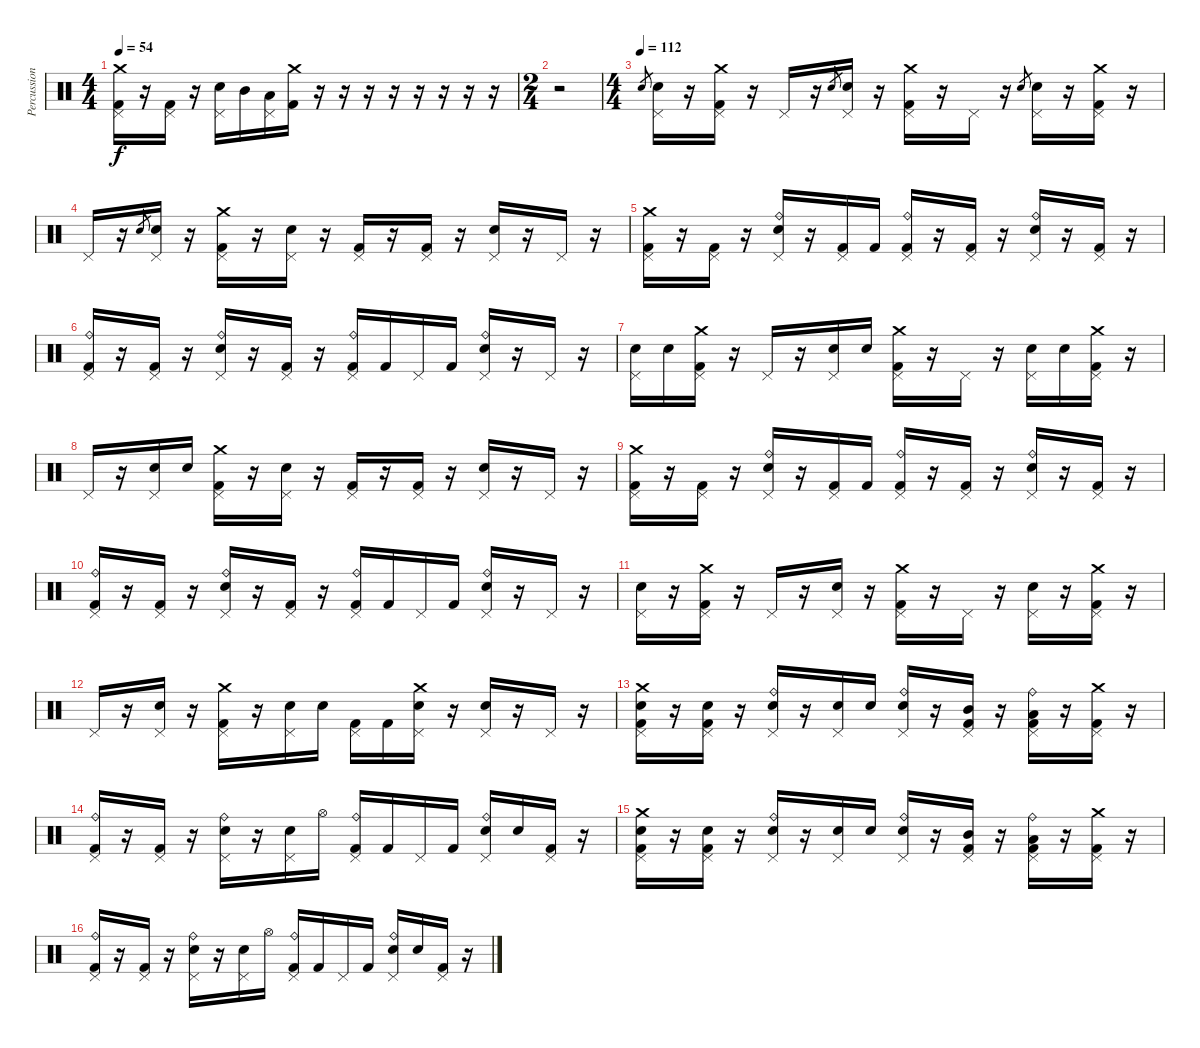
\track ("Percussion" "Percussion") {instrument percussion}
\staff {score}
\articulation defaults
\ts (4 4)
\tempo 54
\clef neutral
\ks c
("Crash medium (hit)" "Pedal Hi-Hat (hit)" "Kick (hit) 2").16{dy f} r.16 ("Pedal Hi-Hat (hit)" "Kick (hit) 2").16 r.16 ("Pedal Hi-Hat (hit)" "Snare (hit) 2").16 "Mid Tom (hit)".16 ("Pedal Hi-Hat (hit)" "Low Tom (hit)").16 ("Crash medium (hit)" "Kick (hit) 2").16 r.16 r.16 r.16 r.16 r.16 r.16 r.16 r.16 |
\ts (2 4)
r.2 |
\ts (4 4)
\tempo (112)
"Snare (hit) 2".8{gr} ("Pedal Hi-Hat (hit)" "Snare (hit) 2").16{volume 13} r.16 ("Crash medium (hit)" "Pedal Hi-Hat (hit)" "Kick (hit) 2").16 r.16 "Pedal Hi-Hat (hit)".16 r.16 "Snare (hit) 2".8{gr} ("Pedal Hi-Hat (hit)" "Snare (hit) 2").16 r.16 ("Crash medium (hit)" "Pedal Hi-Hat (hit)" "Kick (hit) 2").16 r.16 "Pedal Hi-Hat (hit)".16 r.16 "Snare (hit) 2".8{gr} ("Pedal Hi-Hat (hit)" "Snare (hit) 2").16 r.16 ("Crash medium (hit)" "Pedal Hi-Hat (hit)" "Kick (hit) 2").16 r.16 |
"Pedal Hi-Hat (hit)".16 r.16 "Snare (hit) 2".8{gr} ("Pedal Hi-Hat (hit)" "Snare (hit) 2").16 r.16 ("Crash medium (hit)" "Pedal Hi-Hat (hit)" "Kick (hit) 2").16 r.16 ("Pedal Hi-Hat (hit)" "Snare (hit) 2").16 r.16 ("Pedal Hi-Hat (hit)" "Kick (hit) 2").16 r.16 ("Pedal Hi-Hat (hit)" "Kick (hit) 2").16 r.16 ("Pedal Hi-Hat (hit)" "Snare (hit) 2").16 r.16 "Pedal Hi-Hat (hit)".16 r.16 |
("Crash medium (hit)" "Pedal Hi-Hat (hit)" "Kick (hit) 2").16 r.16 ("Pedal Hi-Hat (hit)" "Kick (hit) 2").16 r.16 ("Pedal Hi-Hat (hit)" "Ride (bell)" "Snare (hit) 2").16 r.16 ("Pedal Hi-Hat (hit)" "Kick (hit) 2").16 "Kick (hit) 2".16 ("Pedal Hi-Hat (hit)" "Ride (bell)" "Kick (hit) 2").16 r.16 ("Pedal Hi-Hat (hit)" "Kick (hit) 2").16 r.16 ("Pedal Hi-Hat (hit)" "Ride (bell)" "Snare (hit) 2").16 r.16 ("Pedal Hi-Hat (hit)" "Kick (hit) 2").16 r.16 |
("Pedal Hi-Hat (hit)" "Ride (bell)" "Kick (hit) 2").16 r.16 ("Pedal Hi-Hat (hit)" "Kick (hit) 2").16 r.16 ("Pedal Hi-Hat (hit)" "Ride (bell)" "Snare (hit) 2").16 r.16 ("Pedal Hi-Hat (hit)" "Kick (hit) 2").16 r.16 ("Pedal Hi-Hat (hit)" "Ride (bell)" "Kick (hit) 2").16 "Kick (hit) 2".16 "Pedal Hi-Hat (hit)".16 "Kick (hit) 2".16 ("Pedal Hi-Hat (hit)" "Ride (bell)" "Snare (hit) 2").16 r.16 "Pedal Hi-Hat (hit)".16 r.16 |
("Pedal Hi-Hat (hit)" "Snare (hit) 2").16 "Snare (hit) 2".16 ("Crash medium (hit)" "Pedal Hi-Hat (hit)" "Kick (hit) 2").16 r.16 "Pedal Hi-Hat (hit)".16 r.16 ("Pedal Hi-Hat (hit)" "Snare (hit) 2").16 "Snare (hit) 2".16 ("Crash medium (hit)" "Pedal Hi-Hat (hit)" "Kick (hit) 2").16 r.16 "Pedal Hi-Hat (hit)".16 r.16 ("Pedal Hi-Hat (hit)" "Snare (hit) 2").16 "Snare (hit) 2".16 ("Crash medium (hit)" "Pedal Hi-Hat (hit)" "Kick (hit) 2").16 r.16 |
"Pedal Hi-Hat (hit)".16 r.16 ("Pedal Hi-Hat (hit)" "Snare (hit) 2").16 "Snare (hit) 2".16 ("Crash medium (hit)" "Pedal Hi-Hat (hit)" "Kick (hit) 2").16 r.16 ("Pedal Hi-Hat (hit)" "Snare (hit) 2").16 r.16 ("Pedal Hi-Hat (hit)" "Kick (hit) 2").16 r.16 ("Pedal Hi-Hat (hit)" "Kick (hit) 2").16 r.16 ("Pedal Hi-Hat (hit)" "Snare (hit) 2").16 r.16 "Pedal Hi-Hat (hit)".16 r.16 |
("Crash medium (hit)" "Pedal Hi-Hat (hit)" "Kick (hit) 2").16 r.16 ("Pedal Hi-Hat (hit)" "Kick (hit) 2").16 r.16 ("Pedal Hi-Hat (hit)" "Ride (bell)" "Snare (hit) 2").16 r.16 ("Pedal Hi-Hat (hit)" "Kick (hit) 2").16 "Kick (hit) 2".16 ("Pedal Hi-Hat (hit)" "Ride (bell)" "Kick (hit) 2").16 r.16 ("Pedal Hi-Hat (hit)" "Kick (hit) 2").16 r.16 ("Pedal Hi-Hat (hit)" "Ride (bell)" "Snare (hit) 2").16 r.16 ("Pedal Hi-Hat (hit)" "Kick (hit) 2").16 r.16 |
("Pedal Hi-Hat (hit)" "Ride (bell)" "Kick (hit) 2").16 r.16 ("Pedal Hi-Hat (hit)" "Kick (hit) 2").16 r.16 ("Pedal Hi-Hat (hit)" "Ride (bell)" "Snare (hit) 2").16 r.16 ("Pedal Hi-Hat (hit)" "Kick (hit) 2").16 r.16 ("Pedal Hi-Hat (hit)" "Ride (bell)" "Kick (hit) 2").16 "Kick (hit) 2".16 "Pedal Hi-Hat (hit)".16 "Kick (hit) 2".16 ("Pedal Hi-Hat (hit)" "Ride (bell)" "Snare (hit) 2").16 r.16 "Pedal Hi-Hat (hit)".16 r.16 |
("Pedal Hi-Hat (hit)" "Snare (hit) 2").16 r.16 ("Crash medium (hit)" "Pedal Hi-Hat (hit)" "Kick (hit) 2").16 r.16 "Pedal Hi-Hat (hit)".16 r.16 ("Pedal Hi-Hat (hit)" "Snare (hit) 2").16 r.16 ("Crash medium (hit)" "Pedal Hi-Hat (hit)" "Kick (hit) 2").16 r.16 "Pedal Hi-Hat (hit)".16 r.16 ("Pedal Hi-Hat (hit)" "Snare (hit) 2").16 r.16 ("Crash medium (hit)" "Pedal Hi-Hat (hit)" "Kick (hit) 2").16 r.16 |
"Pedal Hi-Hat (hit)".16 r.16 ("Pedal Hi-Hat (hit)" "Snare (hit) 2").16 r.16 ("Crash medium (hit)" "Pedal Hi-Hat (hit)" "Kick (hit) 2").16 r.16 ("Pedal Hi-Hat (hit)" "Snare (hit) 2").16 "Snare (hit) 2".16 ("Pedal Hi-Hat (hit)" "Kick (hit) 2").16 "Kick (hit) 2".16 ("Crash medium (hit)" "Pedal Hi-Hat (hit)" "Snare (hit) 2").16 r.16 ("Pedal Hi-Hat (hit)" "Snare (hit) 2").16 r.16 "Pedal Hi-Hat (hit)".16 r.16 |
("Crash medium (hit)" "Pedal Hi-Hat (hit)" "Snare (hit) 2" "Kick (hit) 2").16 r.16 ("Pedal Hi-Hat (hit)" "Snare (hit) 2" "Kick (hit) 2").16 r.16 ("Ride (bell)" "Pedal Hi-Hat (hit)" "Snare (hit) 2").16 r.16 ("Pedal Hi-Hat (hit)" "Snare (hit) 2").16 "Snare (hit) 2".16 ("Ride (bell)" "Pedal Hi-Hat (hit)" "Snare (hit) 2").16 r.16 ("Pedal Hi-Hat (hit)" "Mid Tom (hit)" "Kick (hit) 2").16 r.16 ("Ride (bell)" "Pedal Hi-Hat (hit)" "Low Tom (hit)" "Kick (hit) 2").16 r.16 ("Crash medium (hit)" "Pedal Hi-Hat (hit)" "Kick (hit) 2").16 r.16 |
("Pedal Hi-Hat (hit)" "Ride (bell)" "Kick (hit) 2").16 r.16 ("Pedal Hi-Hat (hit)" "Kick (hit) 2").16 r.16 ("Pedal Hi-Hat (hit)" "Ride (bell)" "Snare (hit) 2").16 r.16 ("Pedal Hi-Hat (hit)" "Snare (hit) 2").16 "Hi-Hat (open)".16 ("Pedal Hi-Hat (hit)" "Ride (bell)" "Kick (hit) 2").16 "Kick (hit) 2".16 "Pedal Hi-Hat (hit)".16 "Kick (hit) 2".16 ("Pedal Hi-Hat (hit)" "Ride (bell)" "Snare (hit) 2").16 "Snare (hit) 2".16 ("Pedal Hi-Hat (hit)" "Kick (hit) 2").16 r.16 |
("Crash medium (hit)" "Pedal Hi-Hat (hit)" "Snare (hit) 2" "Kick (hit) 2").16 r.16 ("Pedal Hi-Hat (hit)" "Snare (hit) 2" "Kick (hit) 2").16 r.16 ("Ride (bell)" "Pedal Hi-Hat (hit)" "Snare (hit) 2").16 r.16 ("Pedal Hi-Hat (hit)" "Snare (hit) 2").16 "Snare (hit) 2".16 ("Ride (bell)" "Pedal Hi-Hat (hit)" "Snare (hit) 2").16 r.16 ("Pedal Hi-Hat (hit)" "Mid Tom (hit)" "Kick (hit) 2").16 r.16 ("Ride (bell)" "Pedal Hi-Hat (hit)" "Low Tom (hit)" "Kick (hit) 2").16 r.16 ("Crash medium (hit)" "Pedal Hi-Hat (hit)" "Kick (hit) 2").16 r.16 |
("Pedal Hi-Hat (hit)" "Ride (bell)" "Kick (hit) 2").16 r.16 ("Pedal Hi-Hat (hit)" "Kick (hit) 2").16 r.16 ("Pedal Hi-Hat (hit)" "Ride (bell)" "Snare (hit) 2").16 r.16 ("Pedal Hi-Hat (hit)" "Snare (hit) 2").16 "Hi-Hat (open)".16 ("Pedal Hi-Hat (hit)" "Ride (bell)" "Kick (hit) 2").16 "Kick (hit) 2".16 "Pedal Hi-Hat (hit)".16 "Kick (hit) 2".16 ("Pedal Hi-Hat (hit)" "Ride (bell)" "Snare (hit) 2").16 "Snare (hit) 2".16 ("Pedal Hi-Hat (hit)" "Kick (hit) 2").16 r.16
